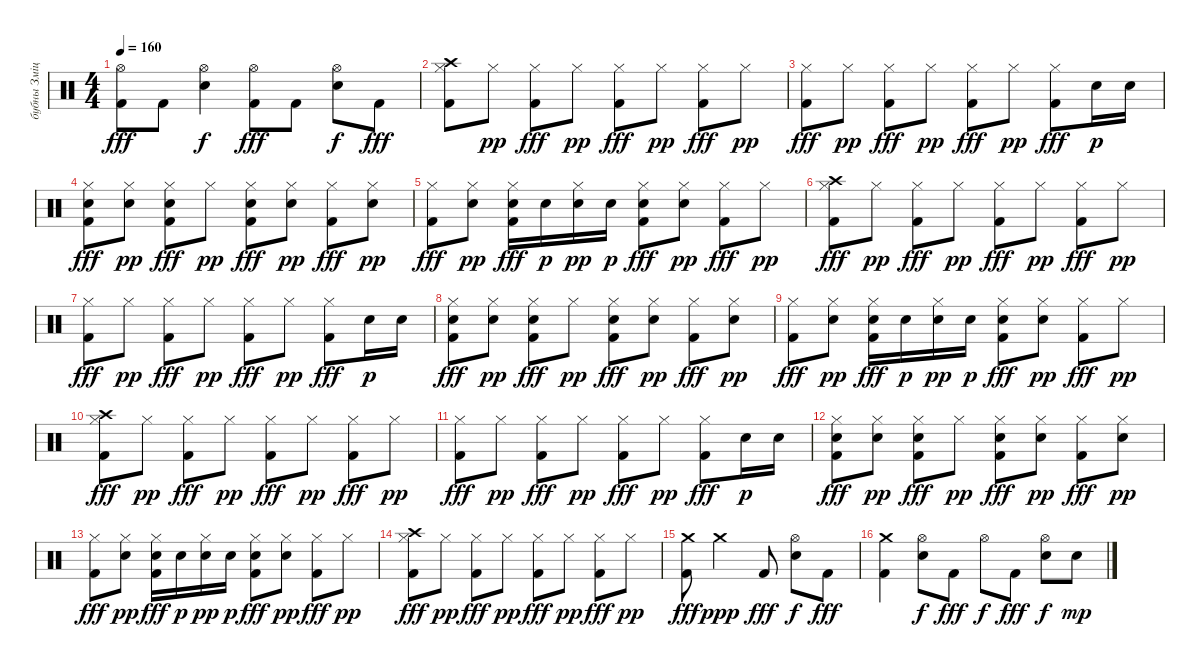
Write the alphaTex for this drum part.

\track ("бубны Змiцер" "бубны Змiц") {instrument percussion}
\staff {score}
\articulation defaults
\ts (4 4)
\tempo 160
\clef neutral
\ks c
("Hi-Hat (open)" "Kick (hit) 2").8{dy fff} "Kick (hit) 2".8 ("Hi-Hat (open)" "Electric Snare (hit)").4{dy f} ("Hi-Hat (open)" "Kick (hit) 2").8{dy fff} "Kick (hit) 2".8 ("Hi-Hat (open)" "Electric Snare (hit)").8{dy f} "Kick (hit) 2".8{dy fff} |
("Crash high (hit)" "Hi-Hat (closed)" "Kick (hit) 2").8 "Hi-Hat (closed)".8{dy pp} ("Hi-Hat (closed)" "Kick (hit) 2").8{dy fff} "Hi-Hat (closed)".8{dy pp} ("Hi-Hat (closed)" "Kick (hit) 2").8{dy fff} "Hi-Hat (closed)".8{dy pp} ("Hi-Hat (closed)" "Kick (hit) 2").8{dy fff} "Hi-Hat (closed)".8{dy pp} |
("Hi-Hat (closed)" "Kick (hit) 2").8{dy fff} "Hi-Hat (closed)".8{dy pp} ("Hi-Hat (closed)" "Kick (hit) 2").8{dy fff} "Hi-Hat (closed)".8{dy pp} ("Hi-Hat (closed)" "Kick (hit) 2").8{dy fff} "Hi-Hat (closed)".8{dy pp} ("Hi-Hat (closed)" "Kick (hit) 2").8{dy fff} "Electric Snare (hit)".16{dy p} "Electric Snare (hit)".16 |
("Electric Snare (hit)" "Hi-Hat (closed)" "Kick (hit) 2").8{dy fff} ("Electric Snare (hit)" "Hi-Hat (closed)").8{dy pp} ("Electric Snare (hit)" "Hi-Hat (closed)" "Kick (hit) 2").8{dy fff} "Hi-Hat (closed)".8{dy pp} ("Electric Snare (hit)" "Hi-Hat (closed)" "Kick (hit) 2").8{dy fff} ("Electric Snare (hit)" "Hi-Hat (closed)").8{dy pp} ("Hi-Hat (closed)" "Kick (hit) 2").8{dy fff} ("Electric Snare (hit)" "Hi-Hat (closed)").8{dy pp} |
("Hi-Hat (closed)" "Kick (hit) 2").8{dy fff} ("Electric Snare (hit)" "Hi-Hat (closed)").8{dy pp} ("Electric Snare (hit)" "Hi-Hat (closed)" "Kick (hit) 2").16{dy fff} "Electric Snare (hit)".16{dy p} ("Electric Snare (hit)" "Hi-Hat (closed)").16{dy pp} "Electric Snare (hit)".16{dy p} ("Electric Snare (hit)" "Hi-Hat (closed)" "Kick (hit) 2").8{dy fff} ("Electric Snare (hit)" "Hi-Hat (closed)").8{dy pp} ("Hi-Hat (closed)" "Kick (hit) 2").8{dy fff} "Hi-Hat (closed)".8{dy pp} |
("Crash high (hit)" "Hi-Hat (closed)" "Kick (hit) 2").8{dy fff} "Hi-Hat (closed)".8{dy pp} ("Hi-Hat (closed)" "Kick (hit) 2").8{dy fff} "Hi-Hat (closed)".8{dy pp} ("Hi-Hat (closed)" "Kick (hit) 2").8{dy fff} "Hi-Hat (closed)".8{dy pp} ("Hi-Hat (closed)" "Kick (hit) 2").8{dy fff} "Hi-Hat (closed)".8{dy pp} |
("Hi-Hat (closed)" "Kick (hit) 2").8{dy fff} "Hi-Hat (closed)".8{dy pp} ("Hi-Hat (closed)" "Kick (hit) 2").8{dy fff} "Hi-Hat (closed)".8{dy pp} ("Hi-Hat (closed)" "Kick (hit) 2").8{dy fff} "Hi-Hat (closed)".8{dy pp} ("Hi-Hat (closed)" "Kick (hit) 2").8{dy fff} "Electric Snare (hit)".16{dy p} "Electric Snare (hit)".16 |
("Electric Snare (hit)" "Hi-Hat (closed)" "Kick (hit) 2").8{dy fff} ("Electric Snare (hit)" "Hi-Hat (closed)").8{dy pp} ("Electric Snare (hit)" "Hi-Hat (closed)" "Kick (hit) 2").8{dy fff} "Hi-Hat (closed)".8{dy pp} ("Electric Snare (hit)" "Hi-Hat (closed)" "Kick (hit) 2").8{dy fff} ("Electric Snare (hit)" "Hi-Hat (closed)").8{dy pp} ("Hi-Hat (closed)" "Kick (hit) 2").8{dy fff} ("Electric Snare (hit)" "Hi-Hat (closed)").8{dy pp} |
("Hi-Hat (closed)" "Kick (hit) 2").8{dy fff} ("Electric Snare (hit)" "Hi-Hat (closed)").8{dy pp} ("Electric Snare (hit)" "Hi-Hat (closed)" "Kick (hit) 2").16{dy fff} "Electric Snare (hit)".16{dy p} ("Electric Snare (hit)" "Hi-Hat (closed)").16{dy pp} "Electric Snare (hit)".16{dy p} ("Electric Snare (hit)" "Hi-Hat (closed)" "Kick (hit) 2").8{dy fff} ("Electric Snare (hit)" "Hi-Hat (closed)").8{dy pp} ("Hi-Hat (closed)" "Kick (hit) 2").8{dy fff} "Hi-Hat (closed)".8{dy pp} |
("Crash high (hit)" "Hi-Hat (closed)" "Kick (hit) 2").8{dy fff} "Hi-Hat (closed)".8{dy pp} ("Hi-Hat (closed)" "Kick (hit) 2").8{dy fff} "Hi-Hat (closed)".8{dy pp} ("Hi-Hat (closed)" "Kick (hit) 2").8{dy fff} "Hi-Hat (closed)".8{dy pp} ("Hi-Hat (closed)" "Kick (hit) 2").8{dy fff} "Hi-Hat (closed)".8{dy pp} |
("Hi-Hat (closed)" "Kick (hit) 2").8{dy fff} "Hi-Hat (closed)".8{dy pp} ("Hi-Hat (closed)" "Kick (hit) 2").8{dy fff} "Hi-Hat (closed)".8{dy pp} ("Hi-Hat (closed)" "Kick (hit) 2").8{dy fff} "Hi-Hat (closed)".8{dy pp} ("Hi-Hat (closed)" "Kick (hit) 2").8{dy fff} "Electric Snare (hit)".16{dy p} "Electric Snare (hit)".16 |
("Electric Snare (hit)" "Hi-Hat (closed)" "Kick (hit) 2").8{dy fff} ("Electric Snare (hit)" "Hi-Hat (closed)").8{dy pp} ("Electric Snare (hit)" "Hi-Hat (closed)" "Kick (hit) 2").8{dy fff} "Hi-Hat (closed)".8{dy pp} ("Electric Snare (hit)" "Hi-Hat (closed)" "Kick (hit) 2").8{dy fff} ("Electric Snare (hit)" "Hi-Hat (closed)").8{dy pp} ("Hi-Hat (closed)" "Kick (hit) 2").8{dy fff} ("Electric Snare (hit)" "Hi-Hat (closed)").8{dy pp} |
("Hi-Hat (closed)" "Kick (hit) 2").8{dy fff} ("Electric Snare (hit)" "Hi-Hat (closed)").8{dy pp} ("Electric Snare (hit)" "Hi-Hat (closed)" "Kick (hit) 2").16{dy fff} "Electric Snare (hit)".16{dy p} ("Electric Snare (hit)" "Hi-Hat (closed)").16{dy pp} "Electric Snare (hit)".16{dy p} ("Electric Snare (hit)" "Hi-Hat (closed)" "Kick (hit) 2").8{dy fff} ("Electric Snare (hit)" "Hi-Hat (closed)").8{dy pp} ("Hi-Hat (closed)" "Kick (hit) 2").8{dy fff} "Hi-Hat (closed)".8{dy pp} |
("Crash high (hit)" "Hi-Hat (closed)" "Kick (hit) 2").8{dy fff} "Hi-Hat (closed)".8{dy pp} ("Hi-Hat (closed)" "Kick (hit) 2").8{dy fff} "Hi-Hat (closed)".8{dy pp} ("Hi-Hat (closed)" "Kick (hit) 2").8{dy fff} "Hi-Hat (closed)".8{dy pp} ("Hi-Hat (closed)" "Kick (hit) 2").8{dy fff} "Hi-Hat (closed)".8{dy pp} |
("Crash medium (hit)" "Kick (hit) 2").8{dy fff} "Crash medium (hit)".2{dy ppp} "Kick (hit) 2".8{dy fff} ("Hi-Hat (open)" "Electric Snare (hit)").8{dy f} "Kick (hit) 2".8{dy fff} |
("Crash medium (hit)" "Kick (hit) 2").4 ("Hi-Hat (open)" "Electric Snare (hit)").8{dy f} "Kick (hit) 2".8{dy fff} "Hi-Hat (open)".8{dy f} "Kick (hit) 2".8{dy fff} ("Hi-Hat (open)" "Electric Snare (hit)").8{dy f} "Electric Snare (hit)".8{dy mp}
